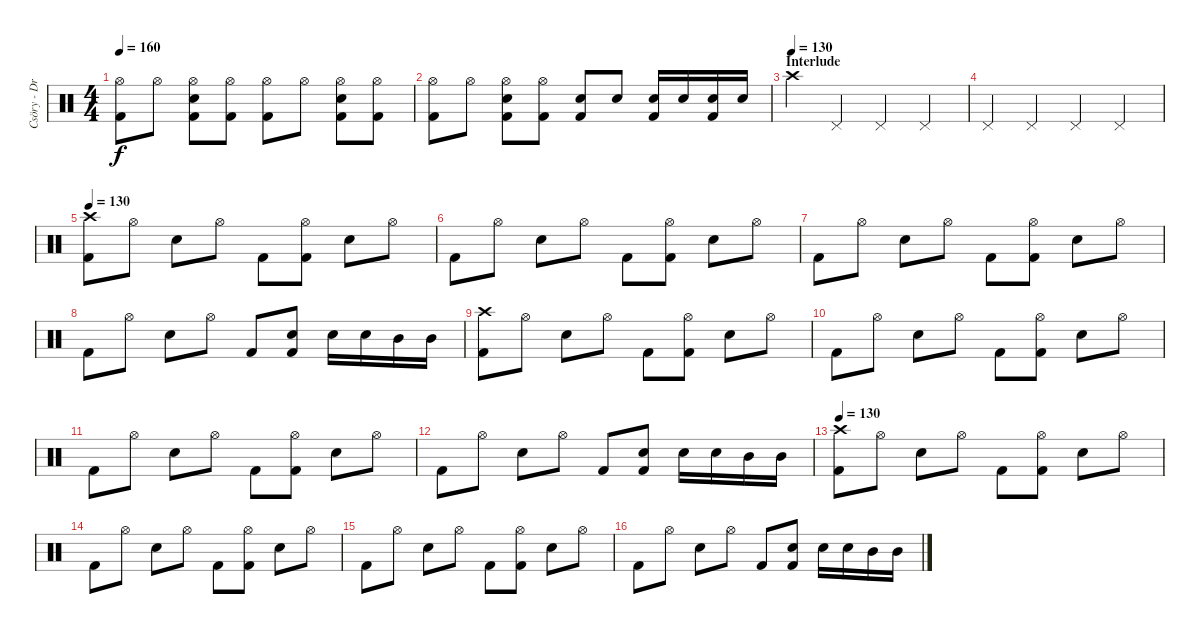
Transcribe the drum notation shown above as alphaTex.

\track ("Csöry - DrumZ" "Csöry - Dr") {instrument percussion}
\staff {score}
\articulation defaults
\ts (4 4)
\tempo 160
\clef neutral
\ks c
("Hi-Hat (open)" "Kick (hit) 2").8{dy f} "Hi-Hat (open)".8 ("Hi-Hat (open)" "Snare (hit) 2" "Kick (hit) 2").8 ("Hi-Hat (open)" "Kick (hit) 2").8 ("Hi-Hat (open)" "Kick (hit) 2").8 "Hi-Hat (open)".8 ("Hi-Hat (open)" "Snare (hit) 2" "Kick (hit) 2").8 ("Hi-Hat (open)" "Kick (hit) 2").8 |
("Hi-Hat (open)" "Kick (hit) 2").8 "Hi-Hat (open)".8 ("Hi-Hat (open)" "Snare (hit) 2" "Kick (hit) 2").8 ("Hi-Hat (open)" "Kick (hit) 2").8 ("Snare (hit) 2" "Kick (hit) 2").8 "Snare (hit) 2".8 ("Snare (hit) 2" "Kick (hit) 2").16 "Snare (hit) 2".16 ("Snare (hit) 2" "Kick (hit) 2").16 "Snare (hit) 2".16 |
\section ("" "Interlude")
\tempo (130)
"Crash high (hit)".4 "Pedal Hi-Hat (hit)".4 "Pedal Hi-Hat (hit)".4 "Pedal Hi-Hat (hit)".4 |
"Pedal Hi-Hat (hit)".4 "Pedal Hi-Hat (hit)".4 "Pedal Hi-Hat (hit)".4 "Pedal Hi-Hat (hit)".4 |
\tempo 130
("Crash high (hit)" "Kick (hit) 2").8 "Hi-Hat (open)".8 "Snare (hit) 2".8 "Hi-Hat (open)".8 "Kick (hit) 2".8 ("Hi-Hat (open)" "Kick (hit) 2").8 "Snare (hit) 2".8 "Hi-Hat (open)".8 |
"Kick (hit) 2".8 "Hi-Hat (open)".8 "Snare (hit) 2".8 "Hi-Hat (open)".8 "Kick (hit) 2".8 ("Hi-Hat (open)" "Kick (hit) 2").8 "Snare (hit) 2".8 "Hi-Hat (open)".8 |
"Kick (hit) 2".8 "Hi-Hat (open)".8 "Snare (hit) 2".8 "Hi-Hat (open)".8 "Kick (hit) 2".8 ("Hi-Hat (open)" "Kick (hit) 2").8 "Snare (hit) 2".8 "Hi-Hat (open)".8 |
"Kick (hit) 2".8 "Hi-Hat (open)".8 "Snare (hit) 2".8 "Hi-Hat (open)".8 "Kick (hit) 2".8 ("Snare (hit) 2" "Kick (hit) 2").8 "Snare (hit) 2".16 "Snare (hit) 2".16 "Mid Tom (hit)".16 "Mid Tom (hit)".16 |
("Crash high (hit)" "Kick (hit) 2").8 "Hi-Hat (open)".8 "Snare (hit) 2".8 "Hi-Hat (open)".8 "Kick (hit) 2".8 ("Hi-Hat (open)" "Kick (hit) 2").8 "Snare (hit) 2".8 "Hi-Hat (open)".8 |
"Kick (hit) 2".8 "Hi-Hat (open)".8 "Snare (hit) 2".8 "Hi-Hat (open)".8 "Kick (hit) 2".8 ("Hi-Hat (open)" "Kick (hit) 2").8 "Snare (hit) 2".8 "Hi-Hat (open)".8 |
"Kick (hit) 2".8 "Hi-Hat (open)".8 "Snare (hit) 2".8 "Hi-Hat (open)".8 "Kick (hit) 2".8 ("Hi-Hat (open)" "Kick (hit) 2").8 "Snare (hit) 2".8 "Hi-Hat (open)".8 |
"Kick (hit) 2".8 "Hi-Hat (open)".8 "Snare (hit) 2".8 "Hi-Hat (open)".8 "Kick (hit) 2".8 ("Snare (hit) 2" "Kick (hit) 2").8 "Snare (hit) 2".16 "Snare (hit) 2".16 "Mid Tom (hit)".16 "Mid Tom (hit)".16 |
\tempo 130
("Crash high (hit)" "Kick (hit) 2").8 "Hi-Hat (open)".8 "Snare (hit) 2".8 "Hi-Hat (open)".8 "Kick (hit) 2".8 ("Hi-Hat (open)" "Kick (hit) 2").8 "Snare (hit) 2".8 "Hi-Hat (open)".8 |
"Kick (hit) 2".8 "Hi-Hat (open)".8 "Snare (hit) 2".8 "Hi-Hat (open)".8 "Kick (hit) 2".8 ("Hi-Hat (open)" "Kick (hit) 2").8 "Snare (hit) 2".8 "Hi-Hat (open)".8 |
"Kick (hit) 2".8 "Hi-Hat (open)".8 "Snare (hit) 2".8 "Hi-Hat (open)".8 "Kick (hit) 2".8 ("Hi-Hat (open)" "Kick (hit) 2").8 "Snare (hit) 2".8 "Hi-Hat (open)".8 |
"Kick (hit) 2".8 "Hi-Hat (open)".8 "Snare (hit) 2".8 "Hi-Hat (open)".8 "Kick (hit) 2".8 ("Snare (hit) 2" "Kick (hit) 2").8 "Snare (hit) 2".16 "Snare (hit) 2".16 "Mid Tom (hit)".16 "Mid Tom (hit)".16
